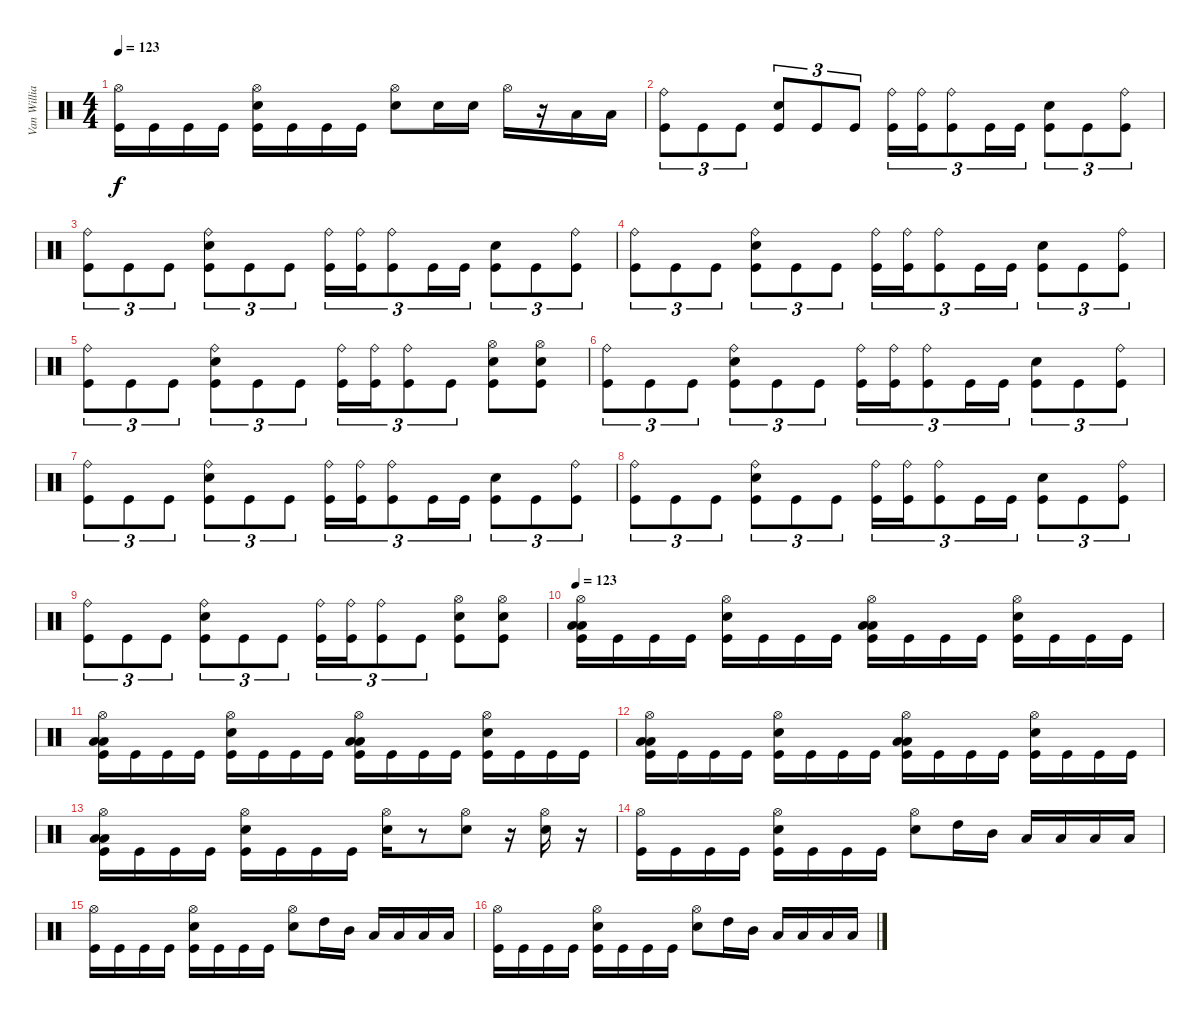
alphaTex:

\track ("Van Williams" "Van Willia") {instrument percussion}
\staff {score}
\articulation defaults
\ts (4 4)
\tempo 123
\clef neutral
\ks c
("Hi-Hat (open)" "Kick (hit)").16{dy f} "Kick (hit)".16 "Kick (hit)".16 "Kick (hit)".16 ("Hi-Hat (open)" "Electric Snare (hit)" "Kick (hit)").16 "Kick (hit)".16 "Kick (hit)".16 "Kick (hit)".16 ("Hi-Hat (open)" "Electric Snare (hit)").8 "Electric Snare (hit)".16 "Electric Snare (hit)".16 "Hi-Hat (open)".16 r.16 "Low Tom (hit)".16 "Low Tom (hit)".16 |
("Ride (bell)" "Kick (hit)").8{tu (3 2)} "Kick (hit)".8{tu (3 2)} "Kick (hit)".8{tu (3 2)} ("Electric Snare (hit)" "Kick (hit)").8{tu (3 2)} "Kick (hit)".8{tu (3 2)} "Kick (hit)".8{tu (3 2)} ("Ride (bell)" "Kick (hit)").16{tu (3 2)} ("Ride (bell)" "Kick (hit)").16{tu (3 2)} ("Ride (bell)" "Kick (hit)").8{tu (3 2)} "Kick (hit)".16{tu (3 2)} "Kick (hit)".16{tu (3 2)} ("Electric Snare (hit)" "Kick (hit)").8{tu (3 2)} "Kick (hit)".8{tu (3 2)} ("Ride (bell)" "Kick (hit)").8{tu (3 2)} |
("Ride (bell)" "Kick (hit)").8{tu (3 2)} "Kick (hit)".8{tu (3 2)} "Kick (hit)".8{tu (3 2)} ("Ride (bell)" "Electric Snare (hit)" "Kick (hit)").8{tu (3 2)} "Kick (hit)".8{tu (3 2)} "Kick (hit)".8{tu (3 2)} ("Ride (bell)" "Kick (hit)").16{tu (3 2)} ("Ride (bell)" "Kick (hit)").16{tu (3 2)} ("Ride (bell)" "Kick (hit)").8{tu (3 2)} "Kick (hit)".16{tu (3 2)} "Kick (hit)".16{tu (3 2)} ("Electric Snare (hit)" "Kick (hit)").8{tu (3 2)} "Kick (hit)".8{tu (3 2)} ("Ride (bell)" "Kick (hit)").8{tu (3 2)} |
("Ride (bell)" "Kick (hit)").8{tu (3 2)} "Kick (hit)".8{tu (3 2)} "Kick (hit)".8{tu (3 2)} ("Ride (bell)" "Electric Snare (hit)" "Kick (hit)").8{tu (3 2)} "Kick (hit)".8{tu (3 2)} "Kick (hit)".8{tu (3 2)} ("Ride (bell)" "Kick (hit)").16{tu (3 2)} ("Ride (bell)" "Kick (hit)").16{tu (3 2)} ("Ride (bell)" "Kick (hit)").8{tu (3 2)} "Kick (hit)".16{tu (3 2)} "Kick (hit)".16{tu (3 2)} ("Electric Snare (hit)" "Kick (hit)").8{tu (3 2)} "Kick (hit)".8{tu (3 2)} ("Ride (bell)" "Kick (hit)").8{tu (3 2)} |
("Ride (bell)" "Kick (hit)").8{tu (3 2)} "Kick (hit)".8{tu (3 2)} "Kick (hit)".8{tu (3 2)} ("Ride (bell)" "Electric Snare (hit)" "Kick (hit)").8{tu (3 2)} "Kick (hit)".8{tu (3 2)} "Kick (hit)".8{tu (3 2)} ("Ride (bell)" "Kick (hit)").16{tu (3 2)} ("Ride (bell)" "Kick (hit)").16{tu (3 2)} ("Ride (bell)" "Kick (hit)").8{tu (3 2)} "Kick (hit)".8{tu (3 2)} ("Hi-Hat (open)" "Electric Snare (hit)" "Kick (hit)").8 ("Hi-Hat (open)" "Electric Snare (hit)" "Kick (hit)").8 |
("Ride (bell)" "Kick (hit)").8{tu (3 2)} "Kick (hit)".8{tu (3 2)} "Kick (hit)".8{tu (3 2)} ("Ride (bell)" "Electric Snare (hit)" "Kick (hit)").8{tu (3 2)} "Kick (hit)".8{tu (3 2)} "Kick (hit)".8{tu (3 2)} ("Ride (bell)" "Kick (hit)").16{tu (3 2)} ("Ride (bell)" "Kick (hit)").16{tu (3 2)} ("Ride (bell)" "Kick (hit)").8{tu (3 2)} "Kick (hit)".16{tu (3 2)} "Kick (hit)".16{tu (3 2)} ("Electric Snare (hit)" "Kick (hit)").8{tu (3 2)} "Kick (hit)".8{tu (3 2)} ("Ride (bell)" "Kick (hit)").8{tu (3 2)} |
("Ride (bell)" "Kick (hit)").8{tu (3 2)} "Kick (hit)".8{tu (3 2)} "Kick (hit)".8{tu (3 2)} ("Ride (bell)" "Electric Snare (hit)" "Kick (hit)").8{tu (3 2)} "Kick (hit)".8{tu (3 2)} "Kick (hit)".8{tu (3 2)} ("Ride (bell)" "Kick (hit)").16{tu (3 2)} ("Ride (bell)" "Kick (hit)").16{tu (3 2)} ("Ride (bell)" "Kick (hit)").8{tu (3 2)} "Kick (hit)".16{tu (3 2)} "Kick (hit)".16{tu (3 2)} ("Electric Snare (hit)" "Kick (hit)").8{tu (3 2)} "Kick (hit)".8{tu (3 2)} ("Ride (bell)" "Kick (hit)").8{tu (3 2)} |
("Ride (bell)" "Kick (hit)").8{tu (3 2)} "Kick (hit)".8{tu (3 2)} "Kick (hit)".8{tu (3 2)} ("Ride (bell)" "Electric Snare (hit)" "Kick (hit)").8{tu (3 2)} "Kick (hit)".8{tu (3 2)} "Kick (hit)".8{tu (3 2)} ("Ride (bell)" "Kick (hit)").16{tu (3 2)} ("Ride (bell)" "Kick (hit)").16{tu (3 2)} ("Ride (bell)" "Kick (hit)").8{tu (3 2)} "Kick (hit)".16{tu (3 2)} "Kick (hit)".16{tu (3 2)} ("Electric Snare (hit)" "Kick (hit)").8{tu (3 2)} "Kick (hit)".8{tu (3 2)} ("Ride (bell)" "Kick (hit)").8{tu (3 2)} |
("Ride (bell)" "Kick (hit)").8{tu (3 2)} "Kick (hit)".8{tu (3 2)} "Kick (hit)".8{tu (3 2)} ("Ride (bell)" "Electric Snare (hit)" "Kick (hit)").8{tu (3 2)} "Kick (hit)".8{tu (3 2)} "Kick (hit)".8{tu (3 2)} ("Ride (bell)" "Kick (hit)").16{tu (3 2)} ("Ride (bell)" "Kick (hit)").16{tu (3 2)} ("Ride (bell)" "Kick (hit)").8{tu (3 2)} "Kick (hit)".8{tu (3 2)} ("Hi-Hat (open)" "Electric Snare (hit)" "Kick (hit)").8 ("Hi-Hat (open)" "Electric Snare (hit)" "Kick (hit)").8 |
\tempo 123
("Hi-Hat (open)" "Low Floor Tom (hit)" "Low Floor Tom (hit)" "Kick (hit)").16 "Kick (hit)".16 "Kick (hit)".16 "Kick (hit)".16 ("Hi-Hat (open)" "Electric Snare (hit)" "Kick (hit)").16 "Kick (hit)".16 "Kick (hit)".16 "Kick (hit)".16 ("Hi-Hat (open)" "Low Floor Tom (hit)" "Low Floor Tom (hit)" "Kick (hit)").16 "Kick (hit)".16 "Kick (hit)".16 "Kick (hit)".16 ("Hi-Hat (open)" "Electric Snare (hit)" "Kick (hit)").16 "Kick (hit)".16 "Kick (hit)".16 "Kick (hit)".16 |
("Hi-Hat (open)" "Low Floor Tom (hit)" "Low Floor Tom (hit)" "Kick (hit)").16 "Kick (hit)".16 "Kick (hit)".16 "Kick (hit)".16 ("Hi-Hat (open)" "Electric Snare (hit)" "Kick (hit)").16 "Kick (hit)".16 "Kick (hit)".16 "Kick (hit)".16 ("Hi-Hat (open)" "Low Floor Tom (hit)" "Low Floor Tom (hit)" "Kick (hit)").16 "Kick (hit)".16 "Kick (hit)".16 "Kick (hit)".16 ("Hi-Hat (open)" "Electric Snare (hit)" "Kick (hit)").16 "Kick (hit)".16 "Kick (hit)".16 "Kick (hit)".16 |
("Hi-Hat (open)" "Low Floor Tom (hit)" "Low Floor Tom (hit)" "Kick (hit)").16 "Kick (hit)".16 "Kick (hit)".16 "Kick (hit)".16 ("Hi-Hat (open)" "Electric Snare (hit)" "Kick (hit)").16 "Kick (hit)".16 "Kick (hit)".16 "Kick (hit)".16 ("Hi-Hat (open)" "Low Floor Tom (hit)" "Low Floor Tom (hit)" "Kick (hit)").16 "Kick (hit)".16 "Kick (hit)".16 "Kick (hit)".16 ("Hi-Hat (open)" "Electric Snare (hit)" "Kick (hit)").16 "Kick (hit)".16 "Kick (hit)".16 "Kick (hit)".16 |
("Hi-Hat (open)" "Low Floor Tom (hit)" "Low Floor Tom (hit)" "Kick (hit)").16 "Kick (hit)".16 "Kick (hit)".16 "Kick (hit)".16 ("Hi-Hat (open)" "Electric Snare (hit)" "Kick (hit)").16 "Kick (hit)".16 "Kick (hit)".16 "Kick (hit)".16 ("Hi-Hat (open)" "Electric Snare (hit)").16 r.8 ("Hi-Hat (open)" "Electric Snare (hit)").8 r.16 ("Hi-Hat (open)" "Electric Snare (hit)").16 r.16 |
("Hi-Hat (open)" "Kick (hit)").16 "Kick (hit)".16 "Kick (hit)".16 "Kick (hit)".16 ("Hi-Hat (open)" "Electric Snare (hit)" "Kick (hit)").16 "Kick (hit)".16 "Kick (hit)".16 "Kick (hit)".16 ("Hi-Hat (open)" "Electric Snare (hit)").8 "High Tom (hit)".16 "Mid Tom (hit)".16 "Low Tom (hit)".16 "Low Tom (hit)".16 "Low Tom (hit)".16 "Low Tom (hit)".16 |
("Hi-Hat (open)" "Kick (hit)").16 "Kick (hit)".16 "Kick (hit)".16 "Kick (hit)".16 ("Hi-Hat (open)" "Electric Snare (hit)" "Kick (hit)").16 "Kick (hit)".16 "Kick (hit)".16 "Kick (hit)".16 ("Hi-Hat (open)" "Electric Snare (hit)").8 "High Tom (hit)".16 "Mid Tom (hit)".16 "Low Tom (hit)".16 "Low Tom (hit)".16 "Low Tom (hit)".16 "Low Tom (hit)".16 |
("Hi-Hat (open)" "Kick (hit)").16 "Kick (hit)".16 "Kick (hit)".16 "Kick (hit)".16 ("Hi-Hat (open)" "Electric Snare (hit)" "Kick (hit)").16 "Kick (hit)".16 "Kick (hit)".16 "Kick (hit)".16 ("Hi-Hat (open)" "Electric Snare (hit)").8 "High Tom (hit)".16 "Mid Tom (hit)".16 "Low Tom (hit)".16 "Low Tom (hit)".16 "Low Tom (hit)".16 "Low Tom (hit)".16
